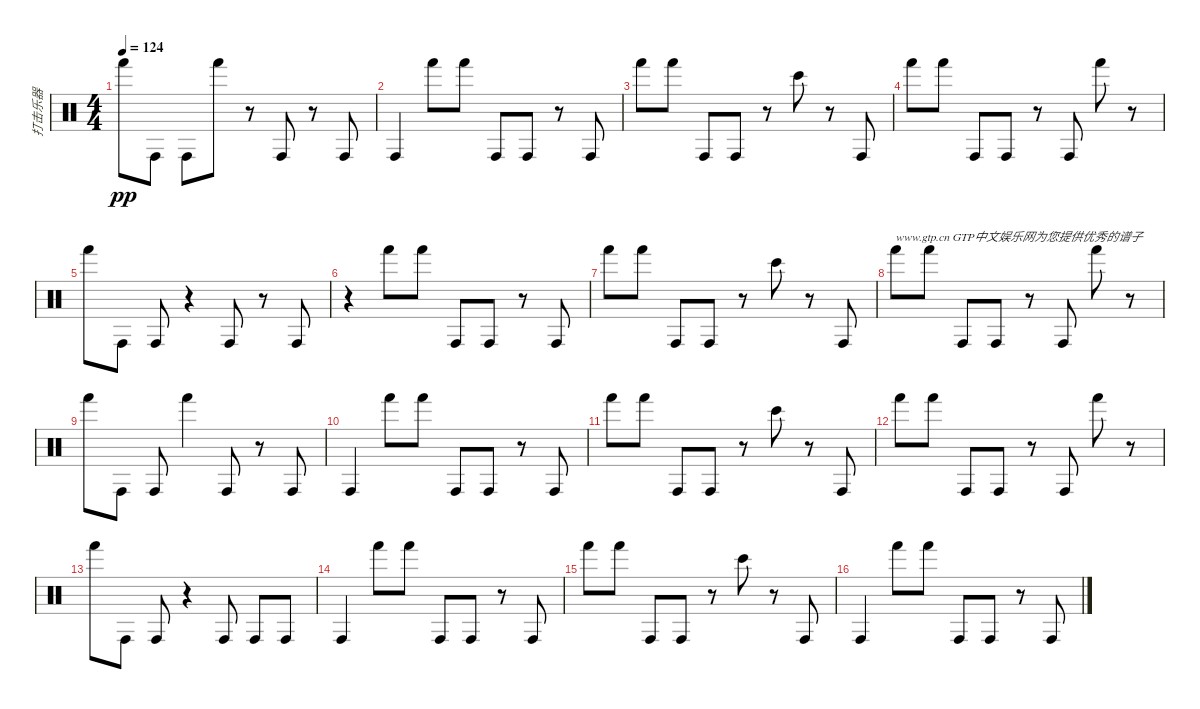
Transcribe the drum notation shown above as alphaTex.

\track ("打击乐器" "打击乐器") {instrument percussion}
\staff {score}
\articulation defaults
\ts (4 4)
\tempo 124
\clef neutral
\ks c "Hand (hit)".8{dy pp} "Conga high (hit)".8 "Conga high (hit)".8 "Hand (hit)".8
r.8 "Conga high (hit)".8 r.8 "Conga high (hit)".8 |
"Conga high (hit)".4 "Hand (hit)".8 "Hand (hit)".8 "Conga high (hit)".8 "Conga high (hit)".8 r.8 "Conga high (hit)".8 |
"Hand (hit)".8 "Hand (hit)".8 "Conga high (hit)".8 "Conga high (hit)".8 r.8 "Bongo High (hit)".8 r.8 "Conga high (hit)".8 |
"Hand (hit)".8 "Hand (hit)".8 "Conga high (hit)".8 "Conga high (hit)".8 r.8 "Conga high (hit)".8 "Hand (hit)".8 r.8 |
"Hand (hit)".8 "Conga high (hit)".8 "Conga high (hit)".8 r.4 "Conga high (hit)".8 r.8 "Conga high (hit)".8 |
r.4 "Hand (hit)".8 "Hand (hit)".8 "Conga high (hit)".8 "Conga high (hit)".8 r.8 "Conga high (hit)".8 |
"Hand (hit)".8 "Hand (hit)".8 "Conga high (hit)".8 "Conga high (hit)".8 r.8 "Bongo High (hit)".8 r.8 "Conga high (hit)".8 |
"Hand (hit)".8{txt "www.gtp.cn GTP中文娱乐网为您提供优秀的谱子"} "Hand (hit)".8 "Conga high (hit)".8 "Conga high (hit)".8 r.8 "Conga high (hit)".8 "Hand (hit)".8 r.8 |
"Hand (hit)".8 "Conga high (hit)".8 "Conga high (hit)".8 "Hand (hit)".4 "Conga high (hit)".8 r.8 "Conga high (hit)".8 |
"Conga high (hit)".4 "Hand (hit)".8 "Hand (hit)".8 "Conga high (hit)".8 "Conga high (hit)".8 r.8 "Conga high (hit)".8 |
"Hand (hit)".8 "Hand (hit)".8 "Conga high (hit)".8 "Conga high (hit)".8 r.8 "Bongo High (hit)".8 r.8 "Conga high (hit)".8 |
"Hand (hit)".8 "Hand (hit)".8 "Conga high (hit)".8 "Conga high (hit)".8 r.8 "Conga high (hit)".8 "Hand (hit)".8 r.8 |
"Hand (hit)".8 "Conga high (hit)".8 "Conga high (hit)".8 r.4 "Conga high (hit)".8 "Conga high (hit)".8 "Conga high (hit)".8 |
"Conga high (hit)".4 "Hand (hit)".8 "Hand (hit)".8 "Conga high (hit)".8 "Conga high (hit)".8 r.8 "Conga high (hit)".8 |
"Hand (hit)".8 "Hand (hit)".8 "Conga high (hit)".8 "Conga high (hit)".8 r.8 "Bongo High (hit)".8 r.8 "Conga high (hit)".8 |
"Conga high (hit)".4 "Hand (hit)".8 "Hand (hit)".8 "Conga high (hit)".8 "Conga high (hit)".8 r.8 "Conga high (hit)".8
